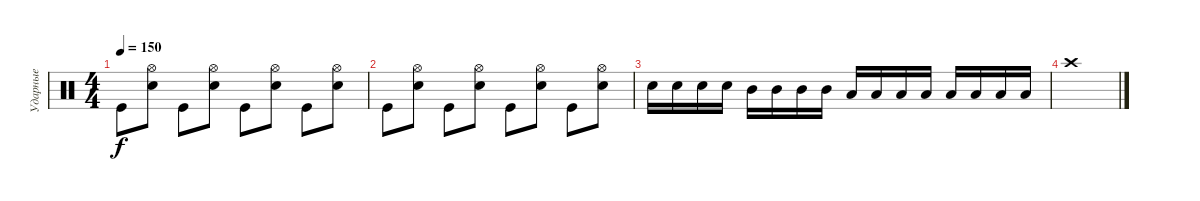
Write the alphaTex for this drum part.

\track ("Ударные" "Ударные") {instrument percussion}
\staff {score}
\articulation defaults
\ts (4 4)
\tempo 150
\clef neutral
\ks c "Kick (hit)".8{dy f}
("Hi-Hat (open)" "Snare (hit) 2").8 "Kick (hit)".8 ("Hi-Hat (open)" "Snare (hit) 2").8 "Kick (hit)".8 ("Hi-Hat (open)" "Snare (hit) 2").8 "Kick (hit)".8 ("Hi-Hat (open)" "Snare (hit) 2").8 |
"Kick (hit)".8 ("Hi-Hat (open)" "Snare (hit) 2").8 "Kick (hit)".8 ("Hi-Hat (open)" "Snare (hit) 2").8 "Kick (hit)".8 ("Hi-Hat (open)" "Snare (hit) 2").8 "Kick (hit)".8 ("Hi-Hat (open)" "Snare (hit) 2").8 |
"Snare (hit) 2".16 "Snare (hit) 2".16 "Snare (hit) 2".16 "Snare (hit) 2".16 "Mid Tom (hit)".16 "Mid Tom (hit)".16 "Mid Tom (hit)".16 "Mid Tom (hit)".16 "Low Tom (hit)".16 "Low Tom (hit)".16 "Low Tom (hit)".16 "Low Tom (hit)".16 "Low Floor Tom (hit)".16 "Low Floor Tom (hit)".16 "Low Floor Tom (hit)".16 "Low Floor Tom (hit)".16 |
"Crash high (hit)".1
